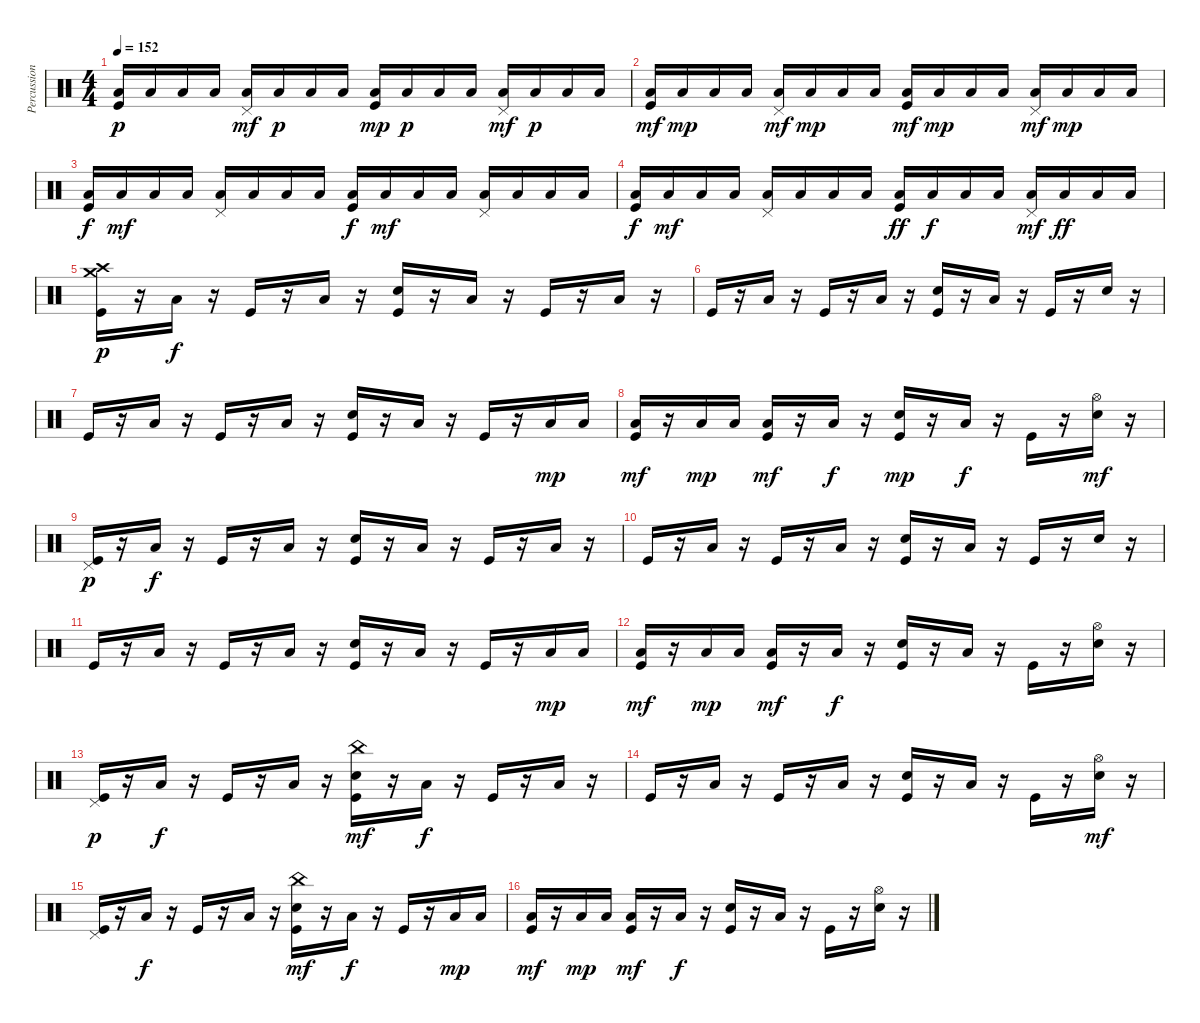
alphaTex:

\track ("Percussions" "Percussion") {instrument percussion}
\staff {score}
\articulation defaults
\ts (4 4)
\tempo 152
\clef neutral
\ks c
("Low Floor Tom (hit)" "Kick (hit)").16{dy p} "Low Floor Tom (hit)".16 "Low Floor Tom (hit)".16 "Low Floor Tom (hit)".16 ("Low Floor Tom (hit)" "Pedal Hi-Hat (hit)").16{dy mf} "Low Floor Tom (hit)".16{dy p} "Low Floor Tom (hit)".16 "Low Floor Tom (hit)".16 ("Low Floor Tom (hit)" "Kick (hit)").16{dy mp} "Low Floor Tom (hit)".16{dy p} "Low Floor Tom (hit)".16 "Low Floor Tom (hit)".16 ("Low Floor Tom (hit)" "Pedal Hi-Hat (hit)").16{dy mf} "Low Floor Tom (hit)".16{dy p} "Low Floor Tom (hit)".16 "Low Floor Tom (hit)".16 |
("Low Floor Tom (hit)" "Kick (hit)").16{dy mf} "Low Floor Tom (hit)".16{dy mp} "Low Floor Tom (hit)".16 "Low Floor Tom (hit)".16 ("Low Floor Tom (hit)" "Pedal Hi-Hat (hit)").16{dy mf} "Low Floor Tom (hit)".16{dy mp} "Low Floor Tom (hit)".16 "Low Floor Tom (hit)".16 ("Low Floor Tom (hit)" "Kick (hit)").16{dy mf} "Low Floor Tom (hit)".16{dy mp} "Low Floor Tom (hit)".16 "Low Floor Tom (hit)".16 ("Low Floor Tom (hit)" "Pedal Hi-Hat (hit)").16{dy mf} "Low Floor Tom (hit)".16{dy mp} "Low Floor Tom (hit)".16 "Low Floor Tom (hit)".16 |
("Low Floor Tom (hit)" "Kick (hit)").16{dy f} "Low Floor Tom (hit)".16{dy mf} "Low Floor Tom (hit)".16 "Low Floor Tom (hit)".16 ("Low Floor Tom (hit)" "Pedal Hi-Hat (hit)").16 "Low Floor Tom (hit)".16 "Low Floor Tom (hit)".16 "Low Floor Tom (hit)".16 ("Low Floor Tom (hit)" "Kick (hit)").16{dy f} "Low Floor Tom (hit)".16{dy mf} "Low Floor Tom (hit)".16 "Low Floor Tom (hit)".16 ("Low Floor Tom (hit)" "Pedal Hi-Hat (hit)").16 "Low Floor Tom (hit)".16 "Low Floor Tom (hit)".16 "Low Floor Tom (hit)".16 |
("Low Floor Tom (hit)" "Kick (hit)").16{dy f} "Low Floor Tom (hit)".16{dy mf} "Low Floor Tom (hit)".16 "Low Floor Tom (hit)".16 ("Low Floor Tom (hit)" "Pedal Hi-Hat (hit)").16 "Low Floor Tom (hit)".16 "Low Floor Tom (hit)".16 "Low Floor Tom (hit)".16 ("Low Floor Tom (hit)" "Kick (hit)").16{dy ff} "Low Floor Tom (hit)".16{dy f} "Low Floor Tom (hit)".16 "Low Floor Tom (hit)".16 ("Low Floor Tom (hit)" "Pedal Hi-Hat (hit)").16{dy mf} "Low Floor Tom (hit)".16{dy ff} "Low Floor Tom (hit)".16 "Low Floor Tom (hit)".16 |
("Crash medium (hit)" "Crash high (hit)" "Kick (hit)").16{dy p} r.16 "Low Floor Tom (hit)".16{dy f} r.16 "Kick (hit)".16 r.16 "Low Floor Tom (hit)".16 r.16 ("Snare (hit) 2" "Kick (hit)").16 r.16 "Low Floor Tom (hit)".16 r.16 "Kick (hit)".16 r.16 "Low Floor Tom (hit)".16 r.16 |
"Kick (hit)".16 r.16 "Low Floor Tom (hit)".16 r.16 "Kick (hit)".16 r.16 "Low Floor Tom (hit)".16 r.16 ("Snare (hit) 2" "Kick (hit)").16 r.16 "Low Floor Tom (hit)".16 r.16 "Kick (hit)".16 r.16 "Snare (hit) 2".16 r.16 |
"Kick (hit)".16 r.16 "Low Floor Tom (hit)".16 r.16 "Kick (hit)".16 r.16 "Low Floor Tom (hit)".16 r.16 ("Snare (hit) 2" "Kick (hit)").16 r.16 "Low Floor Tom (hit)".16 r.16 "Kick (hit)".16 r.16 "Low Floor Tom (hit)".16{dy mp} "Low Floor Tom (hit)".16 |
("Low Floor Tom (hit)" "Kick (hit)").16{dy mf} r.16 "Low Floor Tom (hit)".16{dy mp} "Low Floor Tom (hit)".16 ("Low Floor Tom (hit)" "Kick (hit)").16{dy mf} r.16 "Low Floor Tom (hit)".16{dy f} r.16 ("Snare (hit) 2" "Kick (hit)").16{dy mp} r.16 "Low Floor Tom (hit)".16{dy f} r.16 "Kick (hit)".16 r.16 ("Hi-Hat (open)" "Snare (hit) 2").16{dy mf} r.16 |
("Pedal Hi-Hat (hit)" "Kick (hit)").16{dy p} r.16 "Low Floor Tom (hit)".16{dy f} r.16 "Kick (hit)".16 r.16 "Low Floor Tom (hit)".16 r.16 ("Snare (hit) 2" "Kick (hit)").16 r.16 "Low Floor Tom (hit)".16 r.16 "Kick (hit)".16 r.16 "Low Floor Tom (hit)".16 r.16 |
"Kick (hit)".16 r.16 "Low Floor Tom (hit)".16 r.16 "Kick (hit)".16 r.16 "Low Floor Tom (hit)".16 r.16 ("Snare (hit) 2" "Kick (hit)").16 r.16 "Low Floor Tom (hit)".16 r.16 "Kick (hit)".16 r.16 "Snare (hit) 2".16 r.16 |
"Kick (hit)".16 r.16 "Low Floor Tom (hit)".16 r.16 "Kick (hit)".16 r.16 "Low Floor Tom (hit)".16 r.16 ("Snare (hit) 2" "Kick (hit)").16 r.16 "Low Floor Tom (hit)".16 r.16 "Kick (hit)".16 r.16 "Low Floor Tom (hit)".16{dy mp} "Low Floor Tom (hit)".16 |
("Low Floor Tom (hit)" "Kick (hit)").16{dy mf} r.16 "Low Floor Tom (hit)".16{dy mp} "Low Floor Tom (hit)".16 ("Low Floor Tom (hit)" "Kick (hit)").16{dy mf} r.16 "Low Floor Tom (hit)".16{dy f} r.16 ("Snare (hit) 2" "Kick (hit)").16 r.16 "Low Floor Tom (hit)".16 r.16 "Kick (hit)".16 r.16 ("Hi-Hat (open)" "Snare (hit) 2").16 r.16 |
("Pedal Hi-Hat (hit)" "Kick (hit)").16{dy p} r.16 "Low Floor Tom (hit)".16{dy f} r.16 "Kick (hit)".16 r.16 "Low Floor Tom (hit)".16 r.16 ("China (hit)" "Snare (hit) 2" "Kick (hit)").16{dy mf} r.16 "Low Floor Tom (hit)".16{dy f} r.16 "Kick (hit)".16 r.16 "Low Floor Tom (hit)".16 r.16 |
"Kick (hit)".16 r.16 "Low Floor Tom (hit)".16 r.16 "Kick (hit)".16 r.16 "Low Floor Tom (hit)".16 r.16 ("Snare (hit) 2" "Kick (hit)").16 r.16 "Low Floor Tom (hit)".16 r.16 "Kick (hit)".16 r.16 ("Hi-Hat (open)" "Snare (hit) 2").16{dy mf} r.16 |
("Pedal Hi-Hat (hit)" "Kick (hit)").16 r.16 "Low Floor Tom (hit)".16{dy f} r.16 "Kick (hit)".16 r.16 "Low Floor Tom (hit)".16 r.16 ("China (hit)" "Snare (hit) 2" "Kick (hit)").16{dy mf} r.16 "Low Floor Tom (hit)".16{dy f} r.16 "Kick (hit)".16 r.16 "Low Floor Tom (hit)".16{dy mp} "Low Floor Tom (hit)".16 |
("Low Floor Tom (hit)" "Kick (hit)").16{dy mf} r.16 "Low Floor Tom (hit)".16{dy mp} "Low Floor Tom (hit)".16 ("Low Floor Tom (hit)" "Kick (hit)").16{dy mf} r.16 "Low Floor Tom (hit)".16{dy f} r.16 ("Snare (hit) 2" "Kick (hit)").16 r.16 "Low Floor Tom (hit)".16 r.16 "Kick (hit)".16 r.16 ("Hi-Hat (open)" "Snare (hit) 2").16 r.16
